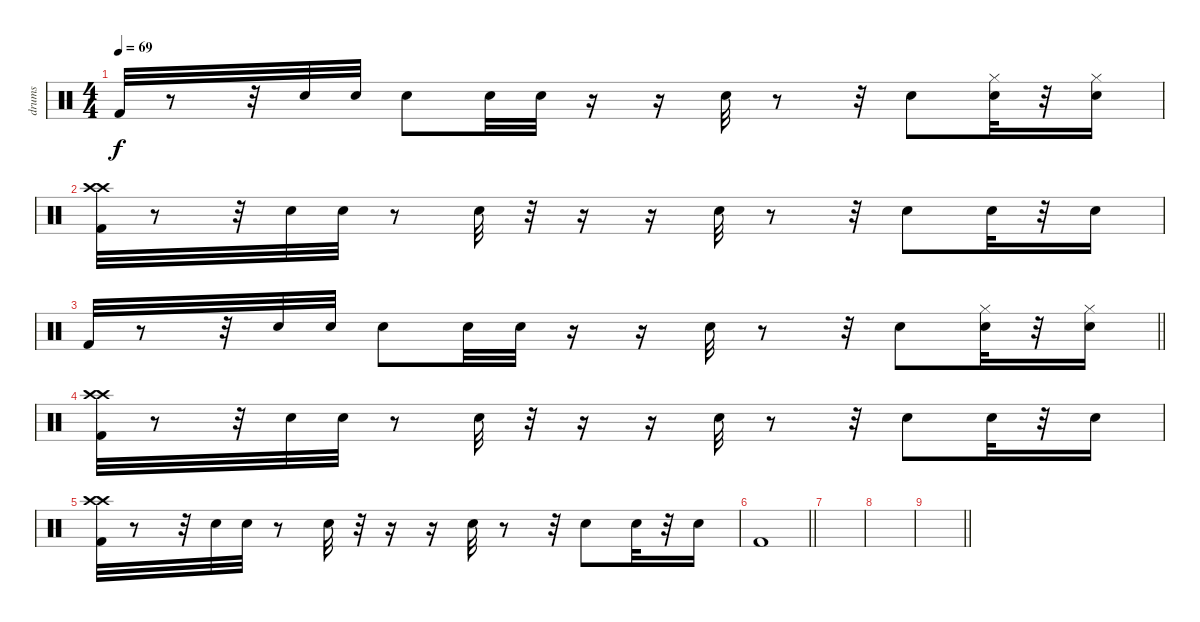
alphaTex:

\track ("drums" "drums") {instrument percussion}
\staff {score}
\articulation defaults
\ts (4 4)
\tempo 69
\clef neutral
\ks c "Kick (hit) 2".32{dy f}
r.8 r.32 "Snare (hit) 2".32 "Snare (hit) 2".32 "Snare (hit) 2".8 "Snare (hit) 2".32 "Snare (hit) 2".32 r.16 r.16 "Snare (hit) 2".32 r.8 r.32 "Snare (hit) 2".8 ("Snare (hit) 2" "Hi-Hat (closed)").32 r.32 ("Snare (hit) 2" "Hi-Hat (closed)").16 |
("Kick (hit) 2" "Crash high (hit)" "Crash high (hit)").32 r.8 r.32 "Snare (hit) 2".32 "Snare (hit) 2".32 r.8 "Snare (hit) 2".32 r.32 r.16 r.16 "Snare (hit) 2".32 r.8 r.32 "Snare (hit) 2".8 "Snare (hit) 2".32 r.32 "Snare (hit) 2".16 |
\barLineRight lightlight "Kick (hit) 2".32
r.8 r.32 "Snare (hit) 2".32 "Snare (hit) 2".32 "Snare (hit) 2".8 "Snare (hit) 2".32 "Snare (hit) 2".32 r.16 r.16 "Snare (hit) 2".32 r.8 r.32 "Snare (hit) 2".8 ("Snare (hit) 2" "Hi-Hat (closed)").32 r.32 ("Snare (hit) 2" "Hi-Hat (closed)").16 |
("Kick (hit) 2" "Crash high (hit)" "Crash high (hit)").32 r.8 r.32 "Snare (hit) 2".32 "Snare (hit) 2".32 r.8 "Snare (hit) 2".32 r.32 r.16 r.16 "Snare (hit) 2".32 r.8 r.32 "Snare (hit) 2".8 "Snare (hit) 2".32 r.32 "Snare (hit) 2".16 |
("Kick (hit) 2" "Crash high (hit)" "Crash high (hit)").32 r.8 r.32 "Snare (hit) 2".32 "Snare (hit) 2".32 r.8 "Snare (hit) 2".32 r.32 r.16 r.16 "Snare (hit) 2".32 r.8 r.32 "Snare (hit) 2".8 "Snare (hit) 2".32 r.32 "Snare (hit) 2".16 |
\barLineRight lightlight "Kick (hit) 2".1
|
|
|
\barLineRight lightlight
